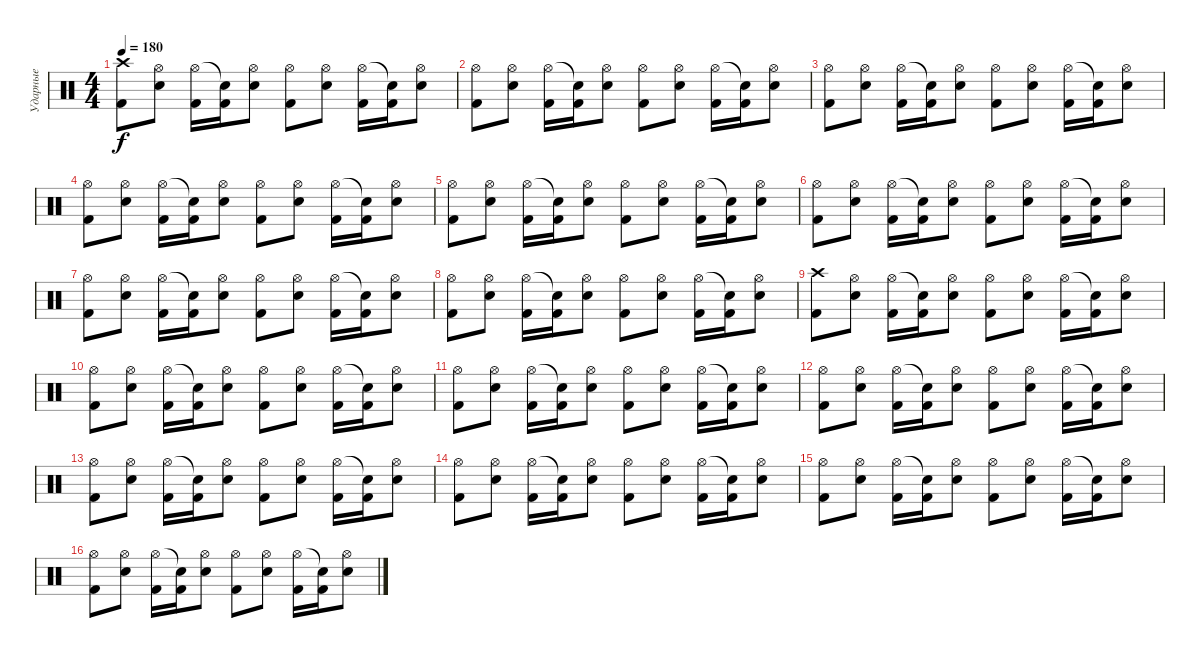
\track ("Ударные" "Ударные") {instrument percussion}
\staff {score}
\articulation defaults
\ts (4 4)
\tempo 180
\clef neutral
\ks c
("Crash high (hit)" "Kick (hit) 2").8{dy f} ("Hi-Hat (open)" "Snare (hit) 2").8 ("Hi-Hat (open)" "Kick (hit) 2").16 ("Snare (hit)"{t} "Kick (hit) 2").16 ("Hi-Hat (open)" "Snare (hit) 2").8 ("Hi-Hat (open)" "Kick (hit) 2").8 ("Hi-Hat (open)" "Snare (hit) 2").8 ("Hi-Hat (open)" "Kick (hit) 2").16 ("Snare (hit)"{t} "Kick (hit) 2").16 ("Hi-Hat (open)" "Snare (hit) 2").8 |
("Hi-Hat (open)" "Kick (hit) 2").8 ("Hi-Hat (open)" "Snare (hit) 2").8 ("Hi-Hat (open)" "Kick (hit) 2").16 ("Snare (hit)"{t} "Kick (hit) 2").16 ("Hi-Hat (open)" "Snare (hit) 2").8 ("Hi-Hat (open)" "Kick (hit) 2").8 ("Hi-Hat (open)" "Snare (hit) 2").8 ("Hi-Hat (open)" "Kick (hit) 2").16 ("Snare (hit)"{t} "Kick (hit) 2").16 ("Hi-Hat (open)" "Snare (hit) 2").8 |
("Hi-Hat (open)" "Kick (hit) 2").8 ("Hi-Hat (open)" "Snare (hit) 2").8 ("Hi-Hat (open)" "Kick (hit) 2").16 ("Snare (hit)"{t} "Kick (hit) 2").16 ("Hi-Hat (open)" "Snare (hit) 2").8 ("Hi-Hat (open)" "Kick (hit) 2").8 ("Hi-Hat (open)" "Snare (hit) 2").8 ("Hi-Hat (open)" "Kick (hit) 2").16 ("Snare (hit)"{t} "Kick (hit) 2").16 ("Hi-Hat (open)" "Snare (hit) 2").8 |
("Hi-Hat (open)" "Kick (hit) 2").8 ("Hi-Hat (open)" "Snare (hit) 2").8 ("Hi-Hat (open)" "Kick (hit) 2").16 ("Snare (hit)"{t} "Kick (hit) 2").16 ("Hi-Hat (open)" "Snare (hit) 2").8 ("Hi-Hat (open)" "Kick (hit) 2").8 ("Hi-Hat (open)" "Snare (hit) 2").8 ("Hi-Hat (open)" "Kick (hit) 2").16 ("Snare (hit)"{t} "Kick (hit) 2").16 ("Hi-Hat (open)" "Snare (hit) 2").8 |
("Hi-Hat (open)" "Kick (hit) 2").8 ("Hi-Hat (open)" "Snare (hit) 2").8 ("Hi-Hat (open)" "Kick (hit) 2").16 ("Snare (hit)"{t} "Kick (hit) 2").16 ("Hi-Hat (open)" "Snare (hit) 2").8 ("Hi-Hat (open)" "Kick (hit) 2").8 ("Hi-Hat (open)" "Snare (hit) 2").8 ("Hi-Hat (open)" "Kick (hit) 2").16 ("Snare (hit)"{t} "Kick (hit) 2").16 ("Hi-Hat (open)" "Snare (hit) 2").8 |
("Hi-Hat (open)" "Kick (hit) 2").8 ("Hi-Hat (open)" "Snare (hit) 2").8 ("Hi-Hat (open)" "Kick (hit) 2").16 ("Snare (hit)"{t} "Kick (hit) 2").16 ("Hi-Hat (open)" "Snare (hit) 2").8 ("Hi-Hat (open)" "Kick (hit) 2").8 ("Hi-Hat (open)" "Snare (hit) 2").8 ("Hi-Hat (open)" "Kick (hit) 2").16 ("Snare (hit)"{t} "Kick (hit) 2").16 ("Hi-Hat (open)" "Snare (hit) 2").8 |
("Hi-Hat (open)" "Kick (hit) 2").8 ("Hi-Hat (open)" "Snare (hit) 2").8 ("Hi-Hat (open)" "Kick (hit) 2").16 ("Snare (hit)"{t} "Kick (hit) 2").16 ("Hi-Hat (open)" "Snare (hit) 2").8 ("Hi-Hat (open)" "Kick (hit) 2").8 ("Hi-Hat (open)" "Snare (hit) 2").8 ("Hi-Hat (open)" "Kick (hit) 2").16 ("Snare (hit)"{t} "Kick (hit) 2").16 ("Hi-Hat (open)" "Snare (hit) 2").8 |
("Hi-Hat (open)" "Kick (hit) 2").8 ("Hi-Hat (open)" "Snare (hit) 2").8 ("Hi-Hat (open)" "Kick (hit) 2").16 ("Snare (hit)"{t} "Kick (hit) 2").16 ("Hi-Hat (open)" "Snare (hit) 2").8 ("Hi-Hat (open)" "Kick (hit) 2").8 ("Hi-Hat (open)" "Snare (hit) 2").8 ("Hi-Hat (open)" "Kick (hit) 2").16 ("Snare (hit)"{t} "Kick (hit) 2").16 ("Hi-Hat (open)" "Snare (hit) 2").8 |
("Crash high (hit)" "Kick (hit) 2").8 ("Hi-Hat (open)" "Snare (hit) 2").8 ("Hi-Hat (open)" "Kick (hit) 2").16 ("Snare (hit)"{t} "Kick (hit) 2").16 ("Hi-Hat (open)" "Snare (hit) 2").8 ("Hi-Hat (open)" "Kick (hit) 2").8 ("Hi-Hat (open)" "Snare (hit) 2").8 ("Hi-Hat (open)" "Kick (hit) 2").16 ("Snare (hit)"{t} "Kick (hit) 2").16 ("Hi-Hat (open)" "Snare (hit) 2").8 |
("Hi-Hat (open)" "Kick (hit) 2").8 ("Hi-Hat (open)" "Snare (hit) 2").8 ("Hi-Hat (open)" "Kick (hit) 2").16 ("Snare (hit)"{t} "Kick (hit) 2").16 ("Hi-Hat (open)" "Snare (hit) 2").8 ("Hi-Hat (open)" "Kick (hit) 2").8 ("Hi-Hat (open)" "Snare (hit) 2").8 ("Hi-Hat (open)" "Kick (hit) 2").16 ("Snare (hit)"{t} "Kick (hit) 2").16 ("Hi-Hat (open)" "Snare (hit) 2").8 |
("Hi-Hat (open)" "Kick (hit) 2").8 ("Hi-Hat (open)" "Snare (hit) 2").8 ("Hi-Hat (open)" "Kick (hit) 2").16 ("Snare (hit)"{t} "Kick (hit) 2").16 ("Hi-Hat (open)" "Snare (hit) 2").8 ("Hi-Hat (open)" "Kick (hit) 2").8 ("Hi-Hat (open)" "Snare (hit) 2").8 ("Hi-Hat (open)" "Kick (hit) 2").16 ("Snare (hit)"{t} "Kick (hit) 2").16 ("Hi-Hat (open)" "Snare (hit) 2").8 |
("Hi-Hat (open)" "Kick (hit) 2").8 ("Hi-Hat (open)" "Snare (hit) 2").8 ("Hi-Hat (open)" "Kick (hit) 2").16 ("Snare (hit)"{t} "Kick (hit) 2").16 ("Hi-Hat (open)" "Snare (hit) 2").8 ("Hi-Hat (open)" "Kick (hit) 2").8 ("Hi-Hat (open)" "Snare (hit) 2").8 ("Hi-Hat (open)" "Kick (hit) 2").16 ("Snare (hit)"{t} "Kick (hit) 2").16 ("Hi-Hat (open)" "Snare (hit) 2").8 |
("Hi-Hat (open)" "Kick (hit) 2").8 ("Hi-Hat (open)" "Snare (hit) 2").8 ("Hi-Hat (open)" "Kick (hit) 2").16 ("Snare (hit)"{t} "Kick (hit) 2").16 ("Hi-Hat (open)" "Snare (hit) 2").8 ("Hi-Hat (open)" "Kick (hit) 2").8 ("Hi-Hat (open)" "Snare (hit) 2").8 ("Hi-Hat (open)" "Kick (hit) 2").16 ("Snare (hit)"{t} "Kick (hit) 2").16 ("Hi-Hat (open)" "Snare (hit) 2").8 |
("Hi-Hat (open)" "Kick (hit) 2").8 ("Hi-Hat (open)" "Snare (hit) 2").8 ("Hi-Hat (open)" "Kick (hit) 2").16 ("Snare (hit)"{t} "Kick (hit) 2").16 ("Hi-Hat (open)" "Snare (hit) 2").8 ("Hi-Hat (open)" "Kick (hit) 2").8 ("Hi-Hat (open)" "Snare (hit) 2").8 ("Hi-Hat (open)" "Kick (hit) 2").16 ("Snare (hit)"{t} "Kick (hit) 2").16 ("Hi-Hat (open)" "Snare (hit) 2").8 |
("Hi-Hat (open)" "Kick (hit) 2").8 ("Hi-Hat (open)" "Snare (hit) 2").8 ("Hi-Hat (open)" "Kick (hit) 2").16 ("Snare (hit)"{t} "Kick (hit) 2").16 ("Hi-Hat (open)" "Snare (hit) 2").8 ("Hi-Hat (open)" "Kick (hit) 2").8 ("Hi-Hat (open)" "Snare (hit) 2").8 ("Hi-Hat (open)" "Kick (hit) 2").16 ("Snare (hit)"{t} "Kick (hit) 2").16 ("Hi-Hat (open)" "Snare (hit) 2").8 |
("Hi-Hat (open)" "Kick (hit) 2").8 ("Hi-Hat (open)" "Snare (hit) 2").8 ("Hi-Hat (open)" "Kick (hit) 2").16 ("Snare (hit)"{t} "Kick (hit) 2").16 ("Hi-Hat (open)" "Snare (hit) 2").8 ("Hi-Hat (open)" "Kick (hit) 2").8 ("Hi-Hat (open)" "Snare (hit) 2").8 ("Hi-Hat (open)" "Kick (hit) 2").16 ("Snare (hit)"{t} "Kick (hit) 2").16 ("Hi-Hat (open)" "Snare (hit) 2").8
